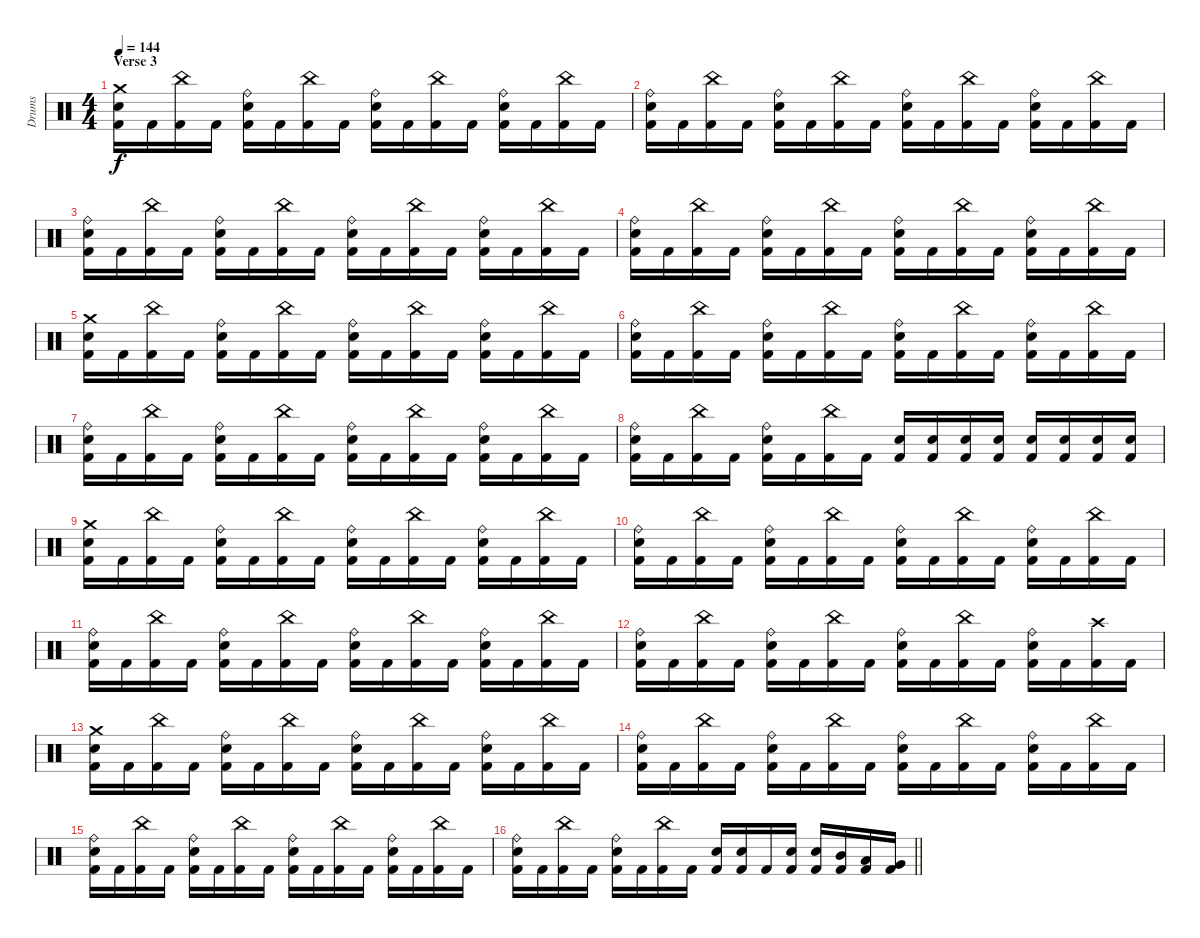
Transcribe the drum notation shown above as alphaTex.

\track ("Drums" "Drums") {instrument percussion}
\staff {score}
\articulation defaults
\ts (4 4)
\section ("" "Verse 3")
\tempo 144
\clef neutral
\ks c
("Kick (hit) 2" "Snare (hit) 2" "Crash medium (hit)").16{dy f} "Kick (hit) 2".16 ("Kick (hit) 2" "China (hit)").16 "Kick (hit) 2".16 ("Kick (hit) 2" "Snare (hit) 2" "Ride (bell)").16 "Kick (hit) 2".16 ("Kick (hit) 2" "China (hit)").16 "Kick (hit) 2".16 ("Kick (hit) 2" "Snare (hit) 2" "Ride (bell)").16 "Kick (hit) 2".16 ("Kick (hit) 2" "China (hit)").16 "Kick (hit) 2".16 ("Kick (hit) 2" "Snare (hit) 2" "Ride (bell)").16 "Kick (hit) 2".16 ("Kick (hit) 2" "China (hit)").16 "Kick (hit) 2".16 |
("Kick (hit) 2" "Snare (hit) 2" "Ride (bell)").16 "Kick (hit) 2".16 ("Kick (hit) 2" "China (hit)").16 "Kick (hit) 2".16 ("Kick (hit) 2" "Snare (hit) 2" "Ride (bell)").16 "Kick (hit) 2".16 ("Kick (hit) 2" "China (hit)").16 "Kick (hit) 2".16 ("Kick (hit) 2" "Snare (hit) 2" "Ride (bell)").16 "Kick (hit) 2".16 ("Kick (hit) 2" "China (hit)").16 "Kick (hit) 2".16 ("Kick (hit) 2" "Snare (hit) 2" "Ride (bell)").16 "Kick (hit) 2".16 ("Kick (hit) 2" "China (hit)").16 "Kick (hit) 2".16 |
("Kick (hit) 2" "Snare (hit) 2" "Ride (bell)").16 "Kick (hit) 2".16 ("Kick (hit) 2" "China (hit)").16 "Kick (hit) 2".16 ("Kick (hit) 2" "Snare (hit) 2" "Ride (bell)").16 "Kick (hit) 2".16 ("Kick (hit) 2" "China (hit)").16 "Kick (hit) 2".16 ("Kick (hit) 2" "Snare (hit) 2" "Ride (bell)").16 "Kick (hit) 2".16 ("Kick (hit) 2" "China (hit)").16 "Kick (hit) 2".16 ("Kick (hit) 2" "Snare (hit) 2" "Ride (bell)").16 "Kick (hit) 2".16 ("Kick (hit) 2" "China (hit)").16 "Kick (hit) 2".16 |
("Kick (hit) 2" "Snare (hit) 2" "Ride (bell)").16 "Kick (hit) 2".16 ("Kick (hit) 2" "China (hit)").16 "Kick (hit) 2".16 ("Kick (hit) 2" "Snare (hit) 2" "Ride (bell)").16 "Kick (hit) 2".16 ("Kick (hit) 2" "China (hit)").16 "Kick (hit) 2".16 ("Kick (hit) 2" "Snare (hit) 2" "Ride (bell)").16 "Kick (hit) 2".16 ("Kick (hit) 2" "China (hit)").16 "Kick (hit) 2".16 ("Kick (hit) 2" "Snare (hit) 2" "Ride (bell)").16 "Kick (hit) 2".16 ("Kick (hit) 2" "China (hit)").16 "Kick (hit) 2".16 |
("Kick (hit) 2" "Snare (hit) 2" "Crash medium (hit)").16 "Kick (hit) 2".16 ("Kick (hit) 2" "China (hit)").16 "Kick (hit) 2".16 ("Kick (hit) 2" "Snare (hit) 2" "Ride (bell)").16 "Kick (hit) 2".16 ("Kick (hit) 2" "China (hit)").16 "Kick (hit) 2".16 ("Kick (hit) 2" "Snare (hit) 2" "Ride (bell)").16 "Kick (hit) 2".16 ("Kick (hit) 2" "China (hit)").16 "Kick (hit) 2".16 ("Kick (hit) 2" "Snare (hit) 2" "Ride (bell)").16 "Kick (hit) 2".16 ("Kick (hit) 2" "China (hit)").16 "Kick (hit) 2".16 |
("Kick (hit) 2" "Snare (hit) 2" "Ride (bell)").16 "Kick (hit) 2".16 ("Kick (hit) 2" "China (hit)").16 "Kick (hit) 2".16 ("Kick (hit) 2" "Snare (hit) 2" "Ride (bell)").16 "Kick (hit) 2".16 ("Kick (hit) 2" "China (hit)").16 "Kick (hit) 2".16 ("Kick (hit) 2" "Snare (hit) 2" "Ride (bell)").16 "Kick (hit) 2".16 ("Kick (hit) 2" "China (hit)").16 "Kick (hit) 2".16 ("Kick (hit) 2" "Snare (hit) 2" "Ride (bell)").16 "Kick (hit) 2".16 ("Kick (hit) 2" "China (hit)").16 "Kick (hit) 2".16 |
("Kick (hit) 2" "Snare (hit) 2" "Ride (bell)").16 "Kick (hit) 2".16 ("Kick (hit) 2" "China (hit)").16 "Kick (hit) 2".16 ("Kick (hit) 2" "Snare (hit) 2" "Ride (bell)").16 "Kick (hit) 2".16 ("Kick (hit) 2" "China (hit)").16 "Kick (hit) 2".16 ("Kick (hit) 2" "Snare (hit) 2" "Ride (bell)").16 "Kick (hit) 2".16 ("Kick (hit) 2" "China (hit)").16 "Kick (hit) 2".16 ("Kick (hit) 2" "Snare (hit) 2" "Ride (bell)").16 "Kick (hit) 2".16 ("Kick (hit) 2" "China (hit)").16 "Kick (hit) 2".16 |
("Kick (hit) 2" "Snare (hit) 2" "Ride (bell)").16 "Kick (hit) 2".16 ("Kick (hit) 2" "China (hit)").16 "Kick (hit) 2".16 ("Kick (hit) 2" "Snare (hit) 2" "Ride (bell)").16 "Kick (hit) 2".16 ("Kick (hit) 2" "China (hit)").16 "Kick (hit) 2".16 ("Kick (hit) 2" "Snare (hit) 2").16 ("Kick (hit) 2" "Snare (hit) 2").16 ("Kick (hit) 2" "Snare (hit) 2").16 ("Kick (hit) 2" "Snare (hit) 2").16 ("Kick (hit) 2" "Snare (hit) 2").16 ("Kick (hit) 2" "Snare (hit) 2").16 ("Kick (hit) 2" "Snare (hit) 2").16 ("Kick (hit) 2" "Snare (hit) 2").16 |
("Kick (hit) 2" "Snare (hit) 2" "Crash medium (hit)").16 "Kick (hit) 2".16 ("Kick (hit) 2" "China (hit)").16 "Kick (hit) 2".16 ("Kick (hit) 2" "Snare (hit) 2" "Ride (bell)").16 "Kick (hit) 2".16 ("Kick (hit) 2" "China (hit)").16 "Kick (hit) 2".16 ("Kick (hit) 2" "Snare (hit) 2" "Ride (bell)").16 "Kick (hit) 2".16 ("Kick (hit) 2" "China (hit)").16 "Kick (hit) 2".16 ("Kick (hit) 2" "Snare (hit) 2" "Ride (bell)").16 "Kick (hit) 2".16 ("Kick (hit) 2" "China (hit)").16 "Kick (hit) 2".16 |
("Kick (hit) 2" "Snare (hit) 2" "Ride (bell)").16 "Kick (hit) 2".16 ("Kick (hit) 2" "China (hit)").16 "Kick (hit) 2".16 ("Kick (hit) 2" "Snare (hit) 2" "Ride (bell)").16 "Kick (hit) 2".16 ("Kick (hit) 2" "China (hit)").16 "Kick (hit) 2".16 ("Kick (hit) 2" "Snare (hit) 2" "Ride (bell)").16 "Kick (hit) 2".16 ("Kick (hit) 2" "China (hit)").16 "Kick (hit) 2".16 ("Kick (hit) 2" "Snare (hit) 2" "Ride (bell)").16 "Kick (hit) 2".16 ("Kick (hit) 2" "China (hit)").16 "Kick (hit) 2".16 |
("Kick (hit) 2" "Snare (hit) 2" "Ride (bell)").16 "Kick (hit) 2".16 ("Kick (hit) 2" "China (hit)").16 "Kick (hit) 2".16 ("Kick (hit) 2" "Snare (hit) 2" "Ride (bell)").16 "Kick (hit) 2".16 ("Kick (hit) 2" "China (hit)").16 "Kick (hit) 2".16 ("Kick (hit) 2" "Snare (hit) 2" "Ride (bell)").16 "Kick (hit) 2".16 ("Kick (hit) 2" "China (hit)").16 "Kick (hit) 2".16 ("Kick (hit) 2" "Snare (hit) 2" "Ride (bell)").16 "Kick (hit) 2".16 ("Kick (hit) 2" "China (hit)").16 "Kick (hit) 2".16 |
("Kick (hit) 2" "Snare (hit) 2" "Ride (bell)").16 "Kick (hit) 2".16 ("Kick (hit) 2" "China (hit)").16 "Kick (hit) 2".16 ("Kick (hit) 2" "Snare (hit) 2" "Ride (bell)").16 "Kick (hit) 2".16 ("Kick (hit) 2" "China (hit)").16 "Kick (hit) 2".16 ("Kick (hit) 2" "Snare (hit) 2" "Ride (bell)").16 "Kick (hit) 2".16 ("Kick (hit) 2" "China (hit)").16 "Kick (hit) 2".16 ("Kick (hit) 2" "Snare (hit) 2" "Ride (bell)").16 "Kick (hit) 2".16 ("Kick (hit) 2" "Crash high (hit)").16 "Kick (hit) 2".16 |
("Kick (hit) 2" "Snare (hit) 2" "Crash medium (hit)").16 "Kick (hit) 2".16 ("Kick (hit) 2" "China (hit)").16 "Kick (hit) 2".16 ("Kick (hit) 2" "Snare (hit) 2" "Ride (bell)").16 "Kick (hit) 2".16 ("Kick (hit) 2" "China (hit)").16 "Kick (hit) 2".16 ("Kick (hit) 2" "Snare (hit) 2" "Ride (bell)").16 "Kick (hit) 2".16 ("Kick (hit) 2" "China (hit)").16 "Kick (hit) 2".16 ("Kick (hit) 2" "Snare (hit) 2" "Ride (bell)").16 "Kick (hit) 2".16 ("Kick (hit) 2" "China (hit)").16 "Kick (hit) 2".16 |
("Kick (hit) 2" "Snare (hit) 2" "Ride (bell)").16 "Kick (hit) 2".16 ("Kick (hit) 2" "China (hit)").16 "Kick (hit) 2".16 ("Kick (hit) 2" "Snare (hit) 2" "Ride (bell)").16 "Kick (hit) 2".16 ("Kick (hit) 2" "China (hit)").16 "Kick (hit) 2".16 ("Kick (hit) 2" "Snare (hit) 2" "Ride (bell)").16 "Kick (hit) 2".16 ("Kick (hit) 2" "China (hit)").16 "Kick (hit) 2".16 ("Kick (hit) 2" "Snare (hit) 2" "Ride (bell)").16 "Kick (hit) 2".16 ("Kick (hit) 2" "China (hit)").16 "Kick (hit) 2".16 |
("Kick (hit) 2" "Snare (hit) 2" "Ride (bell)").16 "Kick (hit) 2".16 ("Kick (hit) 2" "China (hit)").16 "Kick (hit) 2".16 ("Kick (hit) 2" "Snare (hit) 2" "Ride (bell)").16 "Kick (hit) 2".16 ("Kick (hit) 2" "China (hit)").16 "Kick (hit) 2".16 ("Kick (hit) 2" "Snare (hit) 2" "Ride (bell)").16 "Kick (hit) 2".16 ("Kick (hit) 2" "China (hit)").16 "Kick (hit) 2".16 ("Kick (hit) 2" "Snare (hit) 2" "Ride (bell)").16 "Kick (hit) 2".16 ("Kick (hit) 2" "China (hit)").16 "Kick (hit) 2".16 |
\barLineRight lightlight
("Kick (hit) 2" "Snare (hit) 2" "Ride (bell)").16 "Kick (hit) 2".16 ("Kick (hit) 2" "China (hit)").16 "Kick (hit) 2".16 ("Kick (hit) 2" "Snare (hit) 2" "Ride (bell)").16 "Kick (hit) 2".16 ("Kick (hit) 2" "China (hit)").16 "Kick (hit) 2".16 ("Kick (hit) 2" "Snare (hit) 2").16 ("Kick (hit) 2" "Snare (hit) 2").16 "Kick (hit) 2".16 ("Kick (hit) 2" "Snare (hit) 2").16 ("Kick (hit) 2" "Snare (hit) 2").16 ("Kick (hit) 2" "Mid Tom (hit)").16 ("Kick (hit) 2" "Low Tom (hit)").16 ("Kick (hit) 2" "Very Low Tom (hit)").16
